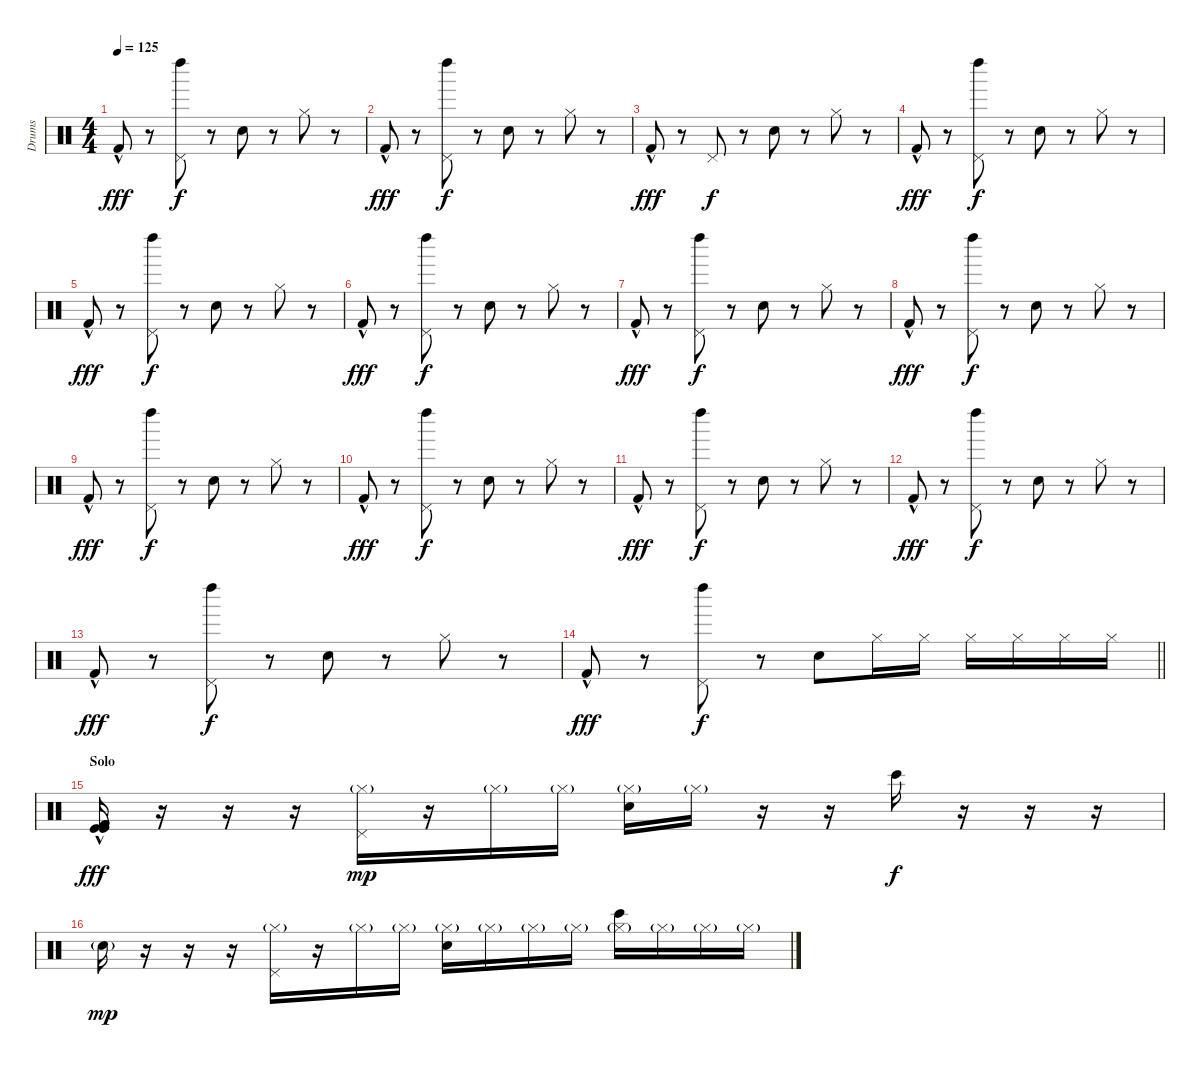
\track ("Drums" "Drums") {instrument percussion}
\staff {score}
\articulation defaults
\ts (4 4)
\tempo 125
\clef neutral
\ks c "Kick (hit) 2"{hac}.8{dy fff}
r.8 ("Pedal Hi-Hat (hit)" "Left Maraca (hit)").8{dy f} r.8 "Hand Clap (hit)".8 r.8 "Hi-Hat (closed)".8 r.8 |
"Kick (hit) 2"{hac}.8{dy fff} r.8 ("Pedal Hi-Hat (hit)" "Left Maraca (hit)").8{dy f} r.8 "Hand Clap (hit)".8 r.8 "Hi-Hat (closed)".8 r.8 |
"Kick (hit) 2"{hac}.8{dy fff} r.8 "Pedal Hi-Hat (hit)".8{dy f} r.8 "Hand Clap (hit)".8 r.8 "Hi-Hat (closed)".8 r.8 |
"Kick (hit) 2"{hac}.8{dy fff} r.8 ("Pedal Hi-Hat (hit)" "Left Maraca (hit)").8{dy f} r.8 "Hand Clap (hit)".8 r.8 "Hi-Hat (closed)".8 r.8 |
"Kick (hit) 2"{hac}.8{dy fff} r.8 ("Pedal Hi-Hat (hit)" "Left Maraca (hit)").8{dy f} r.8 "Hand Clap (hit)".8 r.8 "Hi-Hat (closed)".8 r.8 |
"Kick (hit) 2"{hac}.8{dy fff} r.8 ("Pedal Hi-Hat (hit)" "Left Maraca (hit)").8{dy f} r.8 "Hand Clap (hit)".8 r.8 "Hi-Hat (closed)".8 r.8 |
"Kick (hit) 2"{hac}.8{dy fff} r.8 ("Pedal Hi-Hat (hit)" "Left Maraca (hit)").8{dy f} r.8 "Hand Clap (hit)".8 r.8 "Hi-Hat (closed)".8 r.8 |
"Kick (hit) 2"{hac}.8{dy fff} r.8 ("Pedal Hi-Hat (hit)" "Left Maraca (hit)").8{dy f} r.8 "Hand Clap (hit)".8 r.8 "Hi-Hat (closed)".8 r.8 |
"Kick (hit) 2"{hac}.8{dy fff} r.8 ("Pedal Hi-Hat (hit)" "Left Maraca (hit)").8{dy f} r.8 "Hand Clap (hit)".8 r.8 "Hi-Hat (closed)".8 r.8 |
"Kick (hit) 2"{hac}.8{dy fff} r.8 ("Pedal Hi-Hat (hit)" "Left Maraca (hit)").8{dy f} r.8 "Hand Clap (hit)".8 r.8 "Hi-Hat (closed)".8 r.8 |
"Kick (hit) 2"{hac}.8{dy fff} r.8 ("Pedal Hi-Hat (hit)" "Left Maraca (hit)").8{dy f} r.8 "Hand Clap (hit)".8 r.8 "Hi-Hat (closed)".8 r.8 |
"Kick (hit) 2"{hac}.8{dy fff} r.8 ("Pedal Hi-Hat (hit)" "Left Maraca (hit)").8{dy f} r.8 "Hand Clap (hit)".8 r.8 "Hi-Hat (closed)".8 r.8 |
"Kick (hit) 2"{hac}.8{dy fff} r.8 ("Pedal Hi-Hat (hit)" "Left Maraca (hit)").8{dy f} r.8 "Hand Clap (hit)".8 r.8 "Hi-Hat (closed)".8 r.8 |
\barLineRight lightlight "Kick (hit) 2"{hac}.8{dy fff}
r.8 ("Pedal Hi-Hat (hit)" "Left Maraca (hit)").8{dy f} r.8 "Hand Clap (hit)".8 "Hi-Hat (closed)".16 "Hi-Hat (closed)".16 "Hi-Hat (closed)".16 "Hi-Hat (closed)".16 "Hi-Hat (closed)".16 "Hi-Hat (closed)".16 |
\section ("" "Solo")
("Kick (hit)" "Kick (hit) 2" "Kick (hit)"{hac} "Kick (hit) 2"{hac}).16{dy fff volume 16} r.16{volume 10} r.16 r.16 ("Hi-Hat (closed)"{g} "Pedal Hi-Hat (hit)").16{dy mp} r.16 "Hi-Hat (closed)"{g}.16 "Hi-Hat (closed)"{g}.16 ("Hi-Hat (closed)"{g} "Hand Clap (hit)").16 "Hi-Hat (closed)"{g}.16 r.16 r.16 "Bongo High (hit)".16{dy f} r.16 r.16 r.16 |
"Electric Snare (hit)"{g}.16{dy mp} r.16 r.16 r.16 ("Hi-Hat (closed)"{g} "Pedal Hi-Hat (hit)").16 r.16 "Hi-Hat (closed)"{g}.16 "Hi-Hat (closed)"{g}.16 ("Hi-Hat (closed)"{g} "Hand Clap (hit)").16 "Hi-Hat (closed)"{g}.16 "Hi-Hat (closed)"{g}.16 "Hi-Hat (closed)"{g}.16 ("Hi-Hat (closed)"{g} "Bongo High (hit)").16 "Hi-Hat (closed)"{g}.16 "Hi-Hat (closed)"{g}.16 "Hi-Hat (closed)"{g}.16
